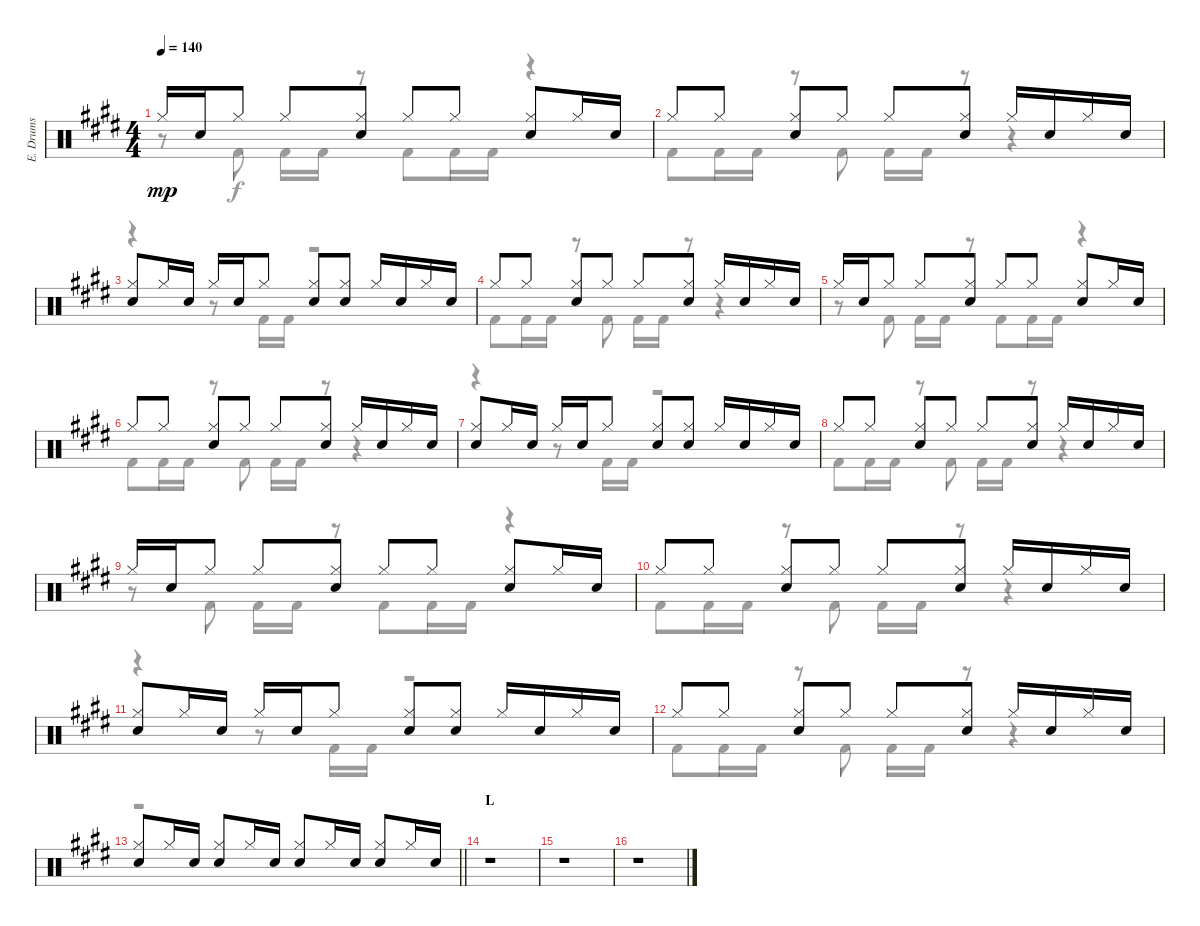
\track ("E. Drums" "E. Drums") {instrument percussion}
\staff {score}
\articulation defaults
\voice
\ts (4 4)
\tempo 140
\clef neutral
\ks e "Hi-Hat (closed)".16{dy mp} "Electric Snare (hit)".16 "Hi-Hat (closed)".8 "Hi-Hat (closed)".8
("Hi-Hat (closed)" "Electric Snare (hit)").8 "Hi-Hat (closed)".8 "Hi-Hat (closed)".8 ("Hi-Hat (closed)" "Electric Snare (hit)").8 "Hi-Hat (closed)".16 "Electric Snare (hit)".16 |
"Hi-Hat (closed)".8 "Hi-Hat (closed)".8 ("Hi-Hat (closed)" "Electric Snare (hit)").8 "Hi-Hat (closed)".8 "Hi-Hat (closed)".8 ("Hi-Hat (closed)" "Electric Snare (hit)").8 "Hi-Hat (closed)".16 "Electric Snare (hit)".16 "Hi-Hat (closed)".16 "Electric Snare (hit)".16 |
("Hi-Hat (closed)" "Electric Snare (hit)").8 "Hi-Hat (closed)".16 "Electric Snare (hit)".16 "Hi-Hat (closed)".16 "Electric Snare (hit)".16 "Hi-Hat (closed)".8 ("Hi-Hat (closed)" "Electric Snare (hit)").8 ("Hi-Hat (closed)" "Electric Snare (hit)").8 "Hi-Hat (closed)".16 "Electric Snare (hit)".16 "Hi-Hat (closed)".16 "Electric Snare (hit)".16 |
"Hi-Hat (closed)".8 "Hi-Hat (closed)".8 ("Hi-Hat (closed)" "Electric Snare (hit)").8 "Hi-Hat (closed)".8 "Hi-Hat (closed)".8 ("Hi-Hat (closed)" "Electric Snare (hit)").8 "Hi-Hat (closed)".16 "Electric Snare (hit)".16 "Hi-Hat (closed)".16 "Electric Snare (hit)".16 |
"Hi-Hat (closed)".16 "Electric Snare (hit)".16 "Hi-Hat (closed)".8 "Hi-Hat (closed)".8 ("Hi-Hat (closed)" "Electric Snare (hit)").8 "Hi-Hat (closed)".8 "Hi-Hat (closed)".8 ("Hi-Hat (closed)" "Electric Snare (hit)").8 "Hi-Hat (closed)".16 "Electric Snare (hit)".16 |
"Hi-Hat (closed)".8 "Hi-Hat (closed)".8 ("Hi-Hat (closed)" "Electric Snare (hit)").8 "Hi-Hat (closed)".8 "Hi-Hat (closed)".8 ("Hi-Hat (closed)" "Electric Snare (hit)").8 "Hi-Hat (closed)".16 "Electric Snare (hit)".16 "Hi-Hat (closed)".16 "Electric Snare (hit)".16 |
("Hi-Hat (closed)" "Electric Snare (hit)").8 "Hi-Hat (closed)".16 "Electric Snare (hit)".16 "Hi-Hat (closed)".16 "Electric Snare (hit)".16 "Hi-Hat (closed)".8 ("Hi-Hat (closed)" "Electric Snare (hit)").8 ("Hi-Hat (closed)" "Electric Snare (hit)").8 "Hi-Hat (closed)".16 "Electric Snare (hit)".16 "Hi-Hat (closed)".16 "Electric Snare (hit)".16 |
"Hi-Hat (closed)".8 "Hi-Hat (closed)".8 ("Hi-Hat (closed)" "Electric Snare (hit)").8 "Hi-Hat (closed)".8 "Hi-Hat (closed)".8 ("Hi-Hat (closed)" "Electric Snare (hit)").8 "Hi-Hat (closed)".16 "Electric Snare (hit)".16 "Hi-Hat (closed)".16 "Electric Snare (hit)".16 |
"Hi-Hat (closed)".16 "Electric Snare (hit)".16 "Hi-Hat (closed)".8 "Hi-Hat (closed)".8 ("Hi-Hat (closed)" "Electric Snare (hit)").8 "Hi-Hat (closed)".8 "Hi-Hat (closed)".8 ("Hi-Hat (closed)" "Electric Snare (hit)").8 "Hi-Hat (closed)".16 "Electric Snare (hit)".16 |
"Hi-Hat (closed)".8 "Hi-Hat (closed)".8 ("Hi-Hat (closed)" "Electric Snare (hit)").8 "Hi-Hat (closed)".8 "Hi-Hat (closed)".8 ("Hi-Hat (closed)" "Electric Snare (hit)").8 "Hi-Hat (closed)".16 "Electric Snare (hit)".16 "Hi-Hat (closed)".16 "Electric Snare (hit)".16 |
("Hi-Hat (closed)" "Electric Snare (hit)").8 "Hi-Hat (closed)".16 "Electric Snare (hit)".16 "Hi-Hat (closed)".16 "Electric Snare (hit)".16 "Hi-Hat (closed)".8 ("Hi-Hat (closed)" "Electric Snare (hit)").8 ("Hi-Hat (closed)" "Electric Snare (hit)").8 "Hi-Hat (closed)".16 "Electric Snare (hit)".16 "Hi-Hat (closed)".16 "Electric Snare (hit)".16 |
"Hi-Hat (closed)".8 "Hi-Hat (closed)".8 ("Hi-Hat (closed)" "Electric Snare (hit)").8 "Hi-Hat (closed)".8 "Hi-Hat (closed)".8 ("Hi-Hat (closed)" "Electric Snare (hit)").8 "Hi-Hat (closed)".16 "Electric Snare (hit)".16 "Hi-Hat (closed)".16 "Electric Snare (hit)".16 |
\barLineRight lightlight
("Hi-Hat (closed)" "Electric Snare (hit)").8 "Hi-Hat (closed)".16 "Electric Snare (hit)".16 ("Hi-Hat (closed)" "Electric Snare (hit)").8 "Hi-Hat (closed)".16 "Electric Snare (hit)".16 ("Hi-Hat (closed)" "Electric Snare (hit)").8 "Hi-Hat (closed)".16 "Electric Snare (hit)".16 ("Hi-Hat (closed)" "Electric Snare (hit)").8 "Hi-Hat (closed)".16 "Electric Snare (hit)".16 |
\section ("" "L")
r.1 |
r.1 |
r.1
\voice
\clef neutral
\ottava regular
\simile none
\ks e
r.8{dy f} "Kick (hit) 2".8 "Kick (hit) 2".16 "Kick (hit) 2".16 r.8 "Kick (hit) 2".8 "Kick (hit) 2".16 "Kick (hit) 2".16 r.4 |
"Kick (hit) 2".8 "Kick (hit) 2".16 "Kick (hit) 2".16 r.8 "Kick (hit) 2".8 "Kick (hit) 2".16 "Kick (hit) 2".16 r.8 r.4 |
r.4 r.8 "Kick (hit) 2".16 "Kick (hit) 2".16 r.2 |
"Kick (hit) 2".8 "Kick (hit) 2".16 "Kick (hit) 2".16 r.8 "Kick (hit) 2".8 "Kick (hit) 2".16 "Kick (hit) 2".16 r.8 r.4 |
r.8 "Kick (hit) 2".8 "Kick (hit) 2".16 "Kick (hit) 2".16 r.8 "Kick (hit) 2".8 "Kick (hit) 2".16 "Kick (hit) 2".16 r.4 |
"Kick (hit) 2".8 "Kick (hit) 2".16 "Kick (hit) 2".16 r.8 "Kick (hit) 2".8 "Kick (hit) 2".16 "Kick (hit) 2".16 r.8 r.4 |
r.4 r.8 "Kick (hit) 2".16 "Kick (hit) 2".16 r.2 |
"Kick (hit) 2".8 "Kick (hit) 2".16 "Kick (hit) 2".16 r.8 "Kick (hit) 2".8 "Kick (hit) 2".16 "Kick (hit) 2".16 r.8 r.4 |
r.8 "Kick (hit) 2".8 "Kick (hit) 2".16 "Kick (hit) 2".16 r.8 "Kick (hit) 2".8 "Kick (hit) 2".16 "Kick (hit) 2".16 r.4 |
"Kick (hit) 2".8 "Kick (hit) 2".16 "Kick (hit) 2".16 r.8 "Kick (hit) 2".8 "Kick (hit) 2".16 "Kick (hit) 2".16 r.8 r.4 |
r.4 r.8 "Kick (hit) 2".16 "Kick (hit) 2".16 r.2 |
"Kick (hit) 2".8 "Kick (hit) 2".16 "Kick (hit) 2".16 r.8 "Kick (hit) 2".8 "Kick (hit) 2".16 "Kick (hit) 2".16 r.8 r.4 |
\barLineRight lightlight
r.1 |
r.1 |
r.1 |
r.1
